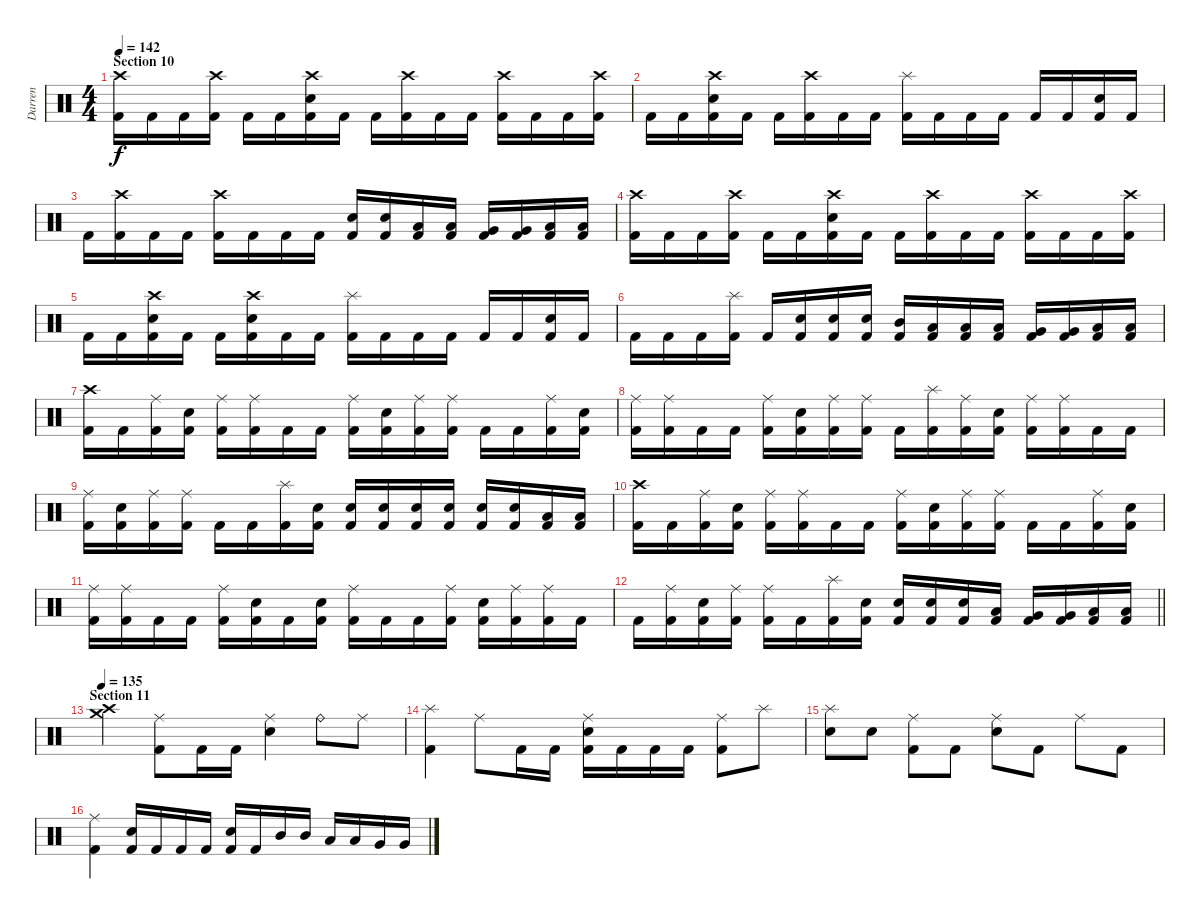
\track ("Darren" "Darren") {instrument percussion}
\staff {score}
\articulation defaults
\ts (4 4)
\section ("" "Section 10")
\tempo 142
\clef neutral
\ks c
("Crash high (hit)" "Kick (hit) 2").16{dy f} "Kick (hit) 2".16 "Kick (hit) 2".16 ("Crash high (hit)" "Kick (hit) 2").16 "Kick (hit) 2".16 "Kick (hit) 2".16 ("Crash high (hit)" "Electric Snare (hit)" "Kick (hit) 2").16 "Kick (hit) 2".16 "Kick (hit) 2".16 ("Crash high (hit)" "Kick (hit) 2").16 "Kick (hit) 2".16 "Kick (hit) 2".16 ("Crash high (hit)" "Kick (hit) 2").16 "Kick (hit) 2".16 "Kick (hit) 2".16 ("Crash high (hit)" "Kick (hit) 2").16 |
"Kick (hit) 2".16 "Kick (hit) 2".16 ("Crash high (hit)" "Electric Snare (hit)" "Kick (hit) 2").16 "Kick (hit) 2".16 "Kick (hit) 2".16 ("Crash high (hit)" "Kick (hit) 2").16 "Kick (hit) 2".16 "Kick (hit) 2".16 ("Splash (hit)" "Kick (hit) 2").16 "Kick (hit) 2".16 "Kick (hit) 2".16 "Kick (hit) 2".16 "Kick (hit) 2".16 "Kick (hit) 2".16 ("Electric Snare (hit)" "Kick (hit) 2").16 "Kick (hit) 2".16 |
"Kick (hit) 2".16 ("Crash high (hit)" "Kick (hit) 2").16 "Kick (hit) 2".16 "Kick (hit) 2".16 ("Crash high (hit)" "Kick (hit) 2").16 "Kick (hit) 2".16 "Kick (hit) 2".16 "Kick (hit) 2".16 ("Electric Snare (hit)" "Kick (hit) 2").16 ("Electric Snare (hit)" "Kick (hit) 2").16 ("Low Tom (hit)" "Kick (hit) 2").16 ("Low Tom (hit)" "Kick (hit) 2").16 ("Very Low Tom (hit)" "Kick (hit) 2").16 ("Very Low Tom (hit)" "Kick (hit) 2").16 ("Low Floor Tom (hit)" "Kick (hit) 2").16 ("Low Floor Tom (hit)" "Kick (hit) 2").16 |
("Crash high (hit)" "Kick (hit) 2").16 "Kick (hit) 2".16 "Kick (hit) 2".16 ("Crash high (hit)" "Kick (hit) 2").16 "Kick (hit) 2".16 "Kick (hit) 2".16 ("Crash high (hit)" "Electric Snare (hit)" "Kick (hit) 2").16 "Kick (hit) 2".16 "Kick (hit) 2".16 ("Crash high (hit)" "Kick (hit) 2").16 "Kick (hit) 2".16 "Kick (hit) 2".16 ("Crash high (hit)" "Kick (hit) 2").16 "Kick (hit) 2".16 "Kick (hit) 2".16 ("Crash high (hit)" "Kick (hit) 2").16 |
"Kick (hit) 2".16 "Kick (hit) 2".16 ("Crash high (hit)" "Electric Snare (hit)" "Kick (hit) 2").16 "Kick (hit) 2".16 "Kick (hit) 2".16 ("Crash high (hit)" "Electric Snare (hit)" "Kick (hit) 2").16 "Kick (hit) 2".16 "Kick (hit) 2".16 ("Splash (hit)" "Kick (hit) 2").16 "Kick (hit) 2".16 "Kick (hit) 2".16 "Kick (hit) 2".16 "Kick (hit) 2".16 "Kick (hit) 2".16 ("Electric Snare (hit)" "Kick (hit) 2").16 "Kick (hit) 2".16 |
"Kick (hit) 2".16 "Kick (hit) 2".16 "Kick (hit) 2".16 ("Splash (hit)" "Kick (hit) 2").16 "Kick (hit) 2".16 ("Electric Snare (hit)" "Kick (hit) 2").16 ("Electric Snare (hit)" "Kick (hit) 2").16 ("Electric Snare (hit)" "Kick (hit) 2").16 ("Mid Tom (hit)" "Kick (hit) 2").16 ("Low Tom (hit)" "Kick (hit) 2").16 ("Low Tom (hit)" "Kick (hit) 2").16 ("Low Tom (hit)" "Kick (hit) 2").16 ("Very Low Tom (hit)" "Kick (hit) 2").16 ("Very Low Tom (hit)" "Kick (hit) 2").16 ("Low Floor Tom (hit)" "Kick (hit) 2").16 ("Low Floor Tom (hit)" "Kick (hit) 2").16 |
("Crash high (hit)" "Kick (hit) 2").16 "Kick (hit) 2".16 ("Ride (middle)" "Kick (hit) 2").16 ("Electric Snare (hit)" "Kick (hit) 2").16 ("Ride (middle)" "Kick (hit) 2").16 ("Ride (middle)" "Kick (hit) 2").16 "Kick (hit) 2".16 "Kick (hit) 2".16 ("Ride (middle)" "Kick (hit) 2").16 ("Electric Snare (hit)" "Kick (hit) 2").16 ("Ride (middle)" "Kick (hit) 2").16 ("Ride (middle)" "Kick (hit) 2").16 "Kick (hit) 2".16 "Kick (hit) 2".16 ("Ride (middle)" "Kick (hit) 2").16 ("Electric Snare (hit)" "Kick (hit) 2").16 |
("Ride (middle)" "Kick (hit) 2").16 ("Ride (middle)" "Kick (hit) 2").16 "Kick (hit) 2".16 "Kick (hit) 2".16 ("Ride (middle)" "Kick (hit) 2").16 ("Electric Snare (hit)" "Kick (hit) 2").16 ("Ride (middle)" "Kick (hit) 2").16 ("Ride (middle)" "Kick (hit) 2").16 "Kick (hit) 2".16 ("Splash (hit)" "Kick (hit) 2").16 ("Ride (middle)" "Kick (hit) 2").16 ("Electric Snare (hit)" "Kick (hit) 2").16 ("Ride (middle)" "Kick (hit) 2").16 ("Ride (middle)" "Kick (hit) 2").16 "Kick (hit) 2".16 "Kick (hit) 2".16 |
("Ride (middle)" "Kick (hit) 2").16 ("Electric Snare (hit)" "Kick (hit) 2").16 ("Ride (middle)" "Kick (hit) 2").16 ("Ride (middle)" "Kick (hit) 2").16 "Kick (hit) 2".16 "Kick (hit) 2".16 ("Splash (hit)" "Kick (hit) 2").16 ("Electric Snare (hit)" "Kick (hit) 2").16 ("Electric Snare (hit)" "Kick (hit) 2").16 ("Electric Snare (hit)" "Kick (hit) 2").16 ("Electric Snare (hit)" "Kick (hit) 2").16 ("Electric Snare (hit)" "Kick (hit) 2").16 ("Electric Snare (hit)" "Kick (hit) 2").16 ("Electric Snare (hit)" "Kick (hit) 2").16 ("Low Floor Tom (hit)" "Kick (hit) 2").16 ("Low Floor Tom (hit)" "Kick (hit) 2").16 |
("Crash high (hit)" "Kick (hit) 2").16 "Kick (hit) 2".16 ("Ride (middle)" "Kick (hit) 2").16 ("Electric Snare (hit)" "Kick (hit) 2").16 ("Ride (middle)" "Kick (hit) 2").16 ("Ride (middle)" "Kick (hit) 2").16 "Kick (hit) 2".16 "Kick (hit) 2".16 ("Ride (middle)" "Kick (hit) 2").16 ("Electric Snare (hit)" "Kick (hit) 2").16 ("Ride (middle)" "Kick (hit) 2").16 ("Ride (middle)" "Kick (hit) 2").16 "Kick (hit) 2".16 "Kick (hit) 2".16 ("Ride (middle)" "Kick (hit) 2").16 ("Electric Snare (hit)" "Kick (hit) 2").16 |
("Ride (middle)" "Kick (hit) 2").16 ("Ride (middle)" "Kick (hit) 2").16 "Kick (hit) 2".16 "Kick (hit) 2".16 ("Ride (middle)" "Kick (hit) 2").16 ("Electric Snare (hit)" "Kick (hit) 2").16 "Kick (hit) 2".16 ("Electric Snare (hit)" "Kick (hit) 2").16 ("Ride (middle)" "Kick (hit) 2").16 "Kick (hit) 2".16 "Kick (hit) 2".16 ("Ride (middle)" "Kick (hit) 2").16 ("Electric Snare (hit)" "Kick (hit) 2").16 ("Ride (middle)" "Kick (hit) 2").16 ("Ride (middle)" "Kick (hit) 2").16 "Kick (hit) 2".16 |
\barLineRight lightlight "Kick (hit) 2".16
("Ride (middle)" "Kick (hit) 2").16 ("Electric Snare (hit)" "Kick (hit) 2").16 ("Ride (middle)" "Kick (hit) 2").16 ("Ride (middle)" "Kick (hit) 2").16 "Kick (hit) 2".16 ("Splash (hit)" "Kick (hit) 2").16 ("Electric Snare (hit)" "Kick (hit) 2").16 ("Electric Snare (hit)" "Kick (hit) 2").16 ("Electric Snare (hit)" "Kick (hit) 2").16 ("Electric Snare (hit)" "Kick (hit) 2").16 ("Low Tom (hit)" "Kick (hit) 2").16 ("Very Low Tom (hit)" "Kick (hit) 2").16 ("Very Low Tom (hit)" "Kick (hit) 2").16 ("Low Floor Tom (hit)" "Kick (hit) 2").16 ("Low Floor Tom (hit)" "Kick (hit) 2").16 |
\section ("" "Section 11")
\tempo 135
("Crash medium (hit)" "Crash high (hit)").4 ("Ride (middle)" "Kick (hit) 2").8 "Kick (hit) 2".16 "Kick (hit) 2".16 ("Ride (middle)" "Electric Snare (hit)").4 "Ride (bell)".8 "Ride (middle)".8 |
("Splash (hit)" "Kick (hit) 2").4 "Ride (middle)".8 "Kick (hit) 2".16 "Kick (hit) 2".16 ("Ride (middle)" "Electric Snare (hit)" "Kick (hit) 2").16 "Kick (hit) 2".16 "Kick (hit) 2".16 "Kick (hit) 2".16 ("Ride (middle)" "Kick (hit) 2").8 "Splash (hit)".8 |
("Splash (hit)" "Electric Snare (hit)").8 "Electric Snare (hit)".8 ("Ride (middle)" "Kick (hit) 2").8 "Kick (hit) 2".8 ("Ride (middle)" "Electric Snare (hit)").8 "Kick (hit) 2".8 "Ride (middle)".8 "Kick (hit) 2".8 |
("Ride (middle)" "Kick (hit) 2").4 ("Electric Snare (hit)" "Kick (hit) 2").16 "Kick (hit) 2".16 "Kick (hit) 2".16 "Kick (hit) 2".16 ("Electric Snare (hit)" "Kick (hit) 2").16 "Kick (hit) 2".16 "Mid Tom (hit)".16 "Mid Tom (hit)".16 "Low Tom (hit)".16 "Low Tom (hit)".16 "Very Low Tom (hit)".16 "Very Low Tom (hit)".16
